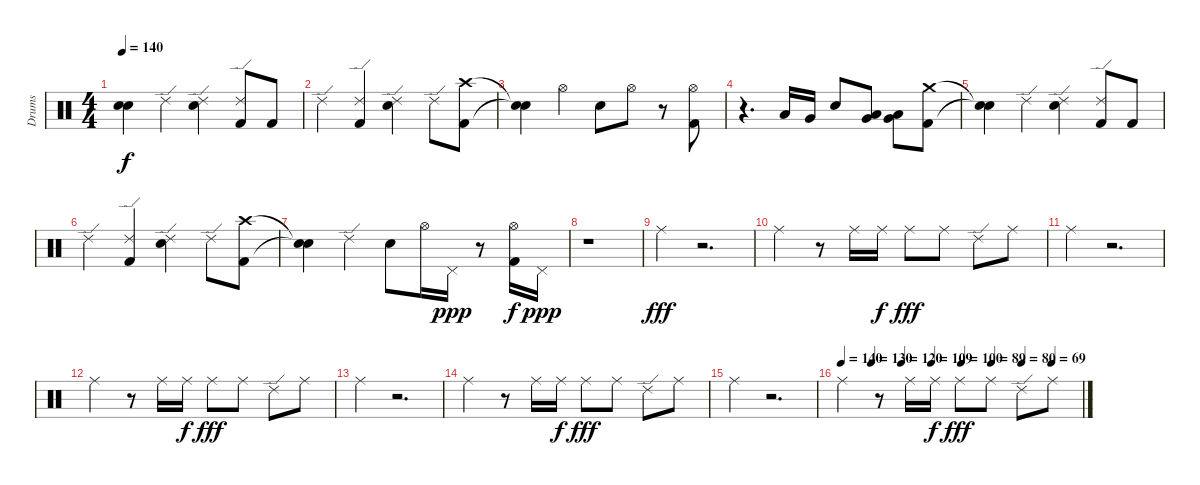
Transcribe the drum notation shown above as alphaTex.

\track ("Drums" "Drums") {instrument percussion}
\staff {score}
\articulation defaults
\ts (4 4)
\tempo 140
\clef neutral
\ks c
("Snare (hit)"{t} "Snare (hit)"{t}).4{dy f} "Ride (edge) 2".4 ("Snare (hit) 2" "Ride (edge) 2").4 ("Kick (hit) 2" "Ride (edge) 2").8 "Kick (hit) 2".8 |
"Ride (edge) 2".4 ("Kick (hit) 2" "Ride (edge) 2").4 ("Snare (hit) 2" "Ride (edge) 2").4 "Ride (edge) 2".8 ("Crash high (hit)" "Kick (hit) 2").8 |
("Snare (hit)"{t} "Snare (hit)"{t}).4 "Hi-Hat (open)".4 "Snare (hit) 2".8 "Hi-Hat (open)".8 r.8 ("Hi-Hat (open)" "Kick (hit) 2").8 |
r.4{d} "Low Tom (hit)".16 "Very Low Tom (hit)".16 "Snare (hit) 2".8 ("Very Low Tom (hit)" "Low Tom (hit)").8 ("Low Floor Tom (hit)" "Very Low Tom (hit)").8 ("Crash medium (hit)" "Kick (hit) 2").8 |
("Snare (hit)"{t} "Snare (hit)"{t}).4 "Ride (edge) 2".4 ("Snare (hit) 2" "Ride (edge) 2").4 ("Kick (hit) 2" "Ride (edge) 2").8 "Kick (hit) 2".8 |
"Ride (edge) 2".4 ("Kick (hit) 2" "Ride (edge) 2").4 ("Snare (hit) 2" "Ride (edge) 2").4 "Ride (edge) 2".8 ("Crash high (hit)" "Kick (hit) 2").8 |
("Snare (hit)"{t} "Snare (hit)"{t}).4 "Ride (edge) 2".4 "Snare (hit) 2".8 "Hi-Hat (open)".16 "Pedal Hi-Hat (hit)".16{dy ppp} r.8 ("Hi-Hat (open)" "Kick (hit) 2").16{dy f} "Pedal Hi-Hat (hit)".16{dy ppp} |
r.1 |
"Ride (middle)".4{dy fff} r.2{d} |
"Ride (middle)".4 r.8 "Ride (middle)".16 "Ride (middle)".16{dy f} "Ride (middle)".8{dy fff} "Ride (middle)".8 "Ride (edge) 2".8 "Ride (middle)".8 |
"Ride (middle)".4 r.2{d} |
"Ride (middle)".4 r.8 "Ride (middle)".16 "Ride (middle)".16{dy f} "Ride (middle)".8{dy fff} "Ride (middle)".8 "Ride (edge) 2".8 "Ride (middle)".8 |
"Ride (middle)".4 r.2{d} |
"Ride (middle)".4 r.8 "Ride (middle)".16 "Ride (middle)".16{dy f} "Ride (middle)".8{dy fff} "Ride (middle)".8 "Ride (edge) 2".8 "Ride (middle)".8 |
"Ride (middle)".4 r.2{d} |
\tempo 140
\tempo (130 0.125)
\tempo (120 0.25)
\tempo (109 0.375)
\tempo (100 0.5)
\tempo (89 0.625)
\tempo (80 0.75)
\tempo (69 0.875)
"Ride (middle)".4 r.8 "Ride (middle)".16 "Ride (middle)".16{dy f} "Ride (middle)".8{dy fff} "Ride (middle)".8 "Ride (edge) 2".8 "Ride (middle)".8
